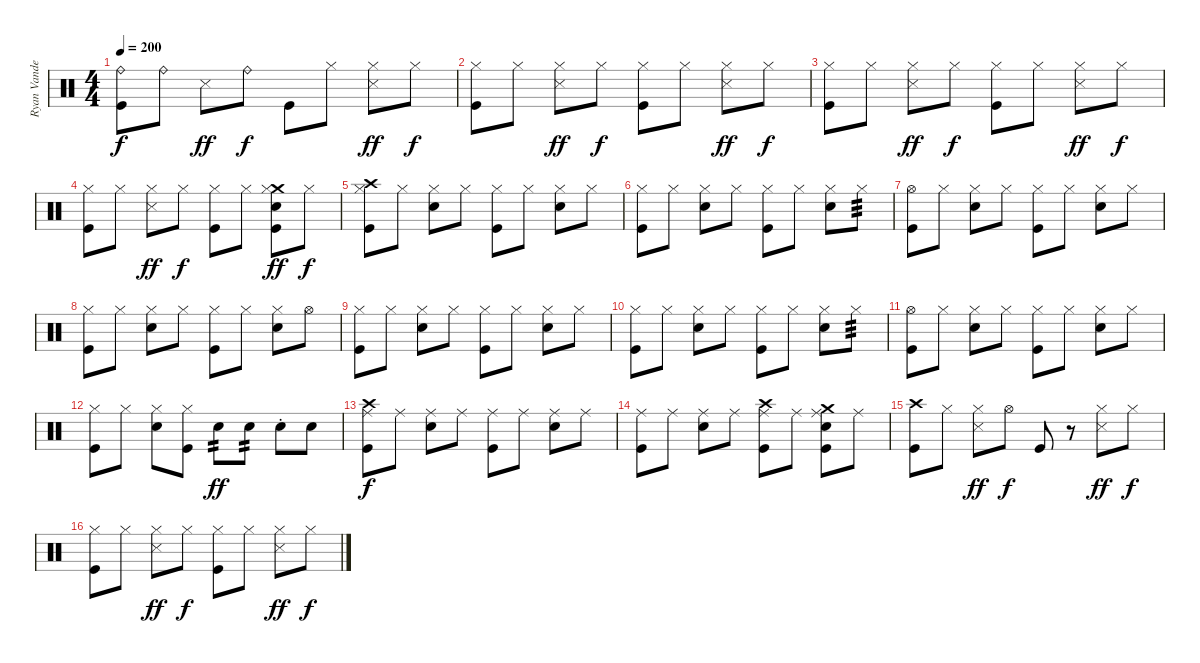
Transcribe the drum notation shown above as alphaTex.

\track ("Ryan Vandebergh" "Ryan Vande") {instrument percussion}
\staff {score}
\articulation defaults
\ts (4 4)
\tempo 200
\clef neutral
\ks c
("Ride (bell)" "Kick (hit)").8{dy f} "Ride (bell)".8 "Snare (side stick) 3".8{dy ff} "Ride (bell)".8{dy f} "Kick (hit)".8 "Hi-Hat (closed)".8 ("Hi-Hat (closed)" "Snare (side stick) 3").8{dy ff} "Hi-Hat (closed)".8{dy f} |
("Hi-Hat (closed)" "Kick (hit)").8 "Hi-Hat (closed)".8 ("Hi-Hat (closed)" "Snare (side stick) 3").8{dy ff} "Hi-Hat (closed)".8{dy f} ("Hi-Hat (closed)" "Kick (hit)").8 "Hi-Hat (closed)".8 ("Hi-Hat (closed)" "Snare (side stick) 3").8{dy ff} "Hi-Hat (closed)".8{dy f} |
("Hi-Hat (closed)" "Kick (hit)").8 "Hi-Hat (closed)".8 ("Hi-Hat (closed)" "Snare (side stick) 3").8{dy ff} "Hi-Hat (closed)".8{dy f} ("Hi-Hat (closed)" "Kick (hit)").8 "Hi-Hat (closed)".8 ("Hi-Hat (closed)" "Snare (side stick) 3").8{dy ff} "Hi-Hat (closed)".8{dy f} |
("Hi-Hat (closed)" "Kick (hit)").8 "Hi-Hat (closed)".8 ("Hi-Hat (closed)" "Snare (side stick) 3").8{dy ff} "Hi-Hat (closed)".8{dy f} ("Hi-Hat (closed)" "Kick (hit)").8 "Hi-Hat (closed)".8 ("Crash medium (hit)" "Hi-Hat (closed)" "Electric Snare (hit)" "Kick (hit)").8{dy ff} "Hi-Hat (closed)".8{dy f} |
("Crash high (hit)" "Hi-Hat (closed)" "Kick (hit)").8 "Hi-Hat (closed)".8 ("Hi-Hat (closed)" "Electric Snare (hit)").8 "Hi-Hat (closed)".8 ("Hi-Hat (closed)" "Kick (hit)").8 "Hi-Hat (closed)".8 ("Hi-Hat (closed)" "Electric Snare (hit)").8 "Hi-Hat (closed)".8 |
("Hi-Hat (closed)" "Kick (hit)").8 "Hi-Hat (closed)".8 ("Hi-Hat (closed)" "Electric Snare (hit)").8 "Hi-Hat (closed)".8 ("Hi-Hat (closed)" "Kick (hit)").8 "Hi-Hat (closed)".8 ("Hi-Hat (closed)" "Electric Snare (hit)").8 "Hi-Hat (closed)".8{tp 3} |
("Hi-Hat (open)" "Kick (hit)").8 "Hi-Hat (closed)".8 ("Hi-Hat (closed)" "Electric Snare (hit)").8 "Hi-Hat (closed)".8 ("Hi-Hat (closed)" "Kick (hit)").8 "Hi-Hat (closed)".8 ("Hi-Hat (closed)" "Electric Snare (hit)").8 "Hi-Hat (closed)".8 |
("Hi-Hat (closed)" "Kick (hit)").8 "Hi-Hat (closed)".8 ("Hi-Hat (closed)" "Electric Snare (hit)").8 "Hi-Hat (closed)".8 ("Hi-Hat (closed)" "Kick (hit)").8 "Hi-Hat (closed)".8 ("Hi-Hat (closed)" "Electric Snare (hit)").8 "Hi-Hat (open)".8 |
("Hi-Hat (closed)" "Kick (hit)").8 "Hi-Hat (closed)".8 ("Hi-Hat (closed)" "Electric Snare (hit)").8 "Hi-Hat (closed)".8 ("Hi-Hat (closed)" "Kick (hit)").8 "Hi-Hat (closed)".8 ("Hi-Hat (closed)" "Electric Snare (hit)").8 "Hi-Hat (closed)".8 |
("Hi-Hat (closed)" "Kick (hit)").8 "Hi-Hat (closed)".8 ("Hi-Hat (closed)" "Electric Snare (hit)").8 "Hi-Hat (closed)".8 ("Hi-Hat (closed)" "Kick (hit)").8 "Hi-Hat (closed)".8 ("Hi-Hat (closed)" "Electric Snare (hit)").8 "Hi-Hat (closed)".8{tp 3} |
("Hi-Hat (open)" "Kick (hit)").8 "Hi-Hat (closed)".8 ("Hi-Hat (closed)" "Electric Snare (hit)").8 "Hi-Hat (closed)".8 ("Hi-Hat (closed)" "Kick (hit)").8 "Hi-Hat (closed)".8 ("Hi-Hat (closed)" "Electric Snare (hit)").8 "Hi-Hat (closed)".8 |
("Hi-Hat (closed)" "Kick (hit)").8 "Hi-Hat (closed)".8 ("Hi-Hat (closed)" "Electric Snare (hit)").8 ("Hi-Hat (closed)" "Kick (hit)").8 "Electric Snare (hit)".8{tp 2 dy ff} "Electric Snare (hit)".8{tp 2} "Electric Snare (hit)"{st}.8 "Electric Snare (hit)".8 |
("Crash high (hit)" "Ride (middle)" "Kick (hit)").8{dy f} "Ride (middle)".8 ("Ride (middle)" "Electric Snare (hit)").8 "Ride (middle)".8 ("Ride (middle)" "Kick (hit)").8 "Ride (middle)".8 ("Ride (middle)" "Electric Snare (hit)").8 "Ride (middle)".8 |
("Ride (middle)" "Kick (hit)").8 "Ride (middle)".8 ("Ride (middle)" "Electric Snare (hit)").8 "Ride (middle)".8 ("Crash high (hit)" "Ride (middle)" "Kick (hit)").8 "Ride (middle)".8 ("Crash medium (hit)" "Ride (middle)" "Electric Snare (hit)" "Kick (hit)").8 "Ride (middle)".8 |
("Crash high (hit)" "Kick (hit)").8 "Hi-Hat (closed)".8 ("Hi-Hat (closed)" "Snare (side stick) 3").8{dy ff} "Hi-Hat (open)".8{dy f} "Kick (hit)".8 r.8 ("Hi-Hat (closed)" "Snare (side stick) 3").8{dy ff} "Hi-Hat (closed)".8{dy f} |
("Hi-Hat (closed)" "Kick (hit)").8 "Hi-Hat (closed)".8 ("Hi-Hat (closed)" "Snare (side stick) 3").8{dy ff} "Hi-Hat (closed)".8{dy f} ("Hi-Hat (closed)" "Kick (hit)").8 "Hi-Hat (closed)".8 ("Hi-Hat (closed)" "Snare (side stick) 3").8{dy ff} "Hi-Hat (closed)".8{dy f}
